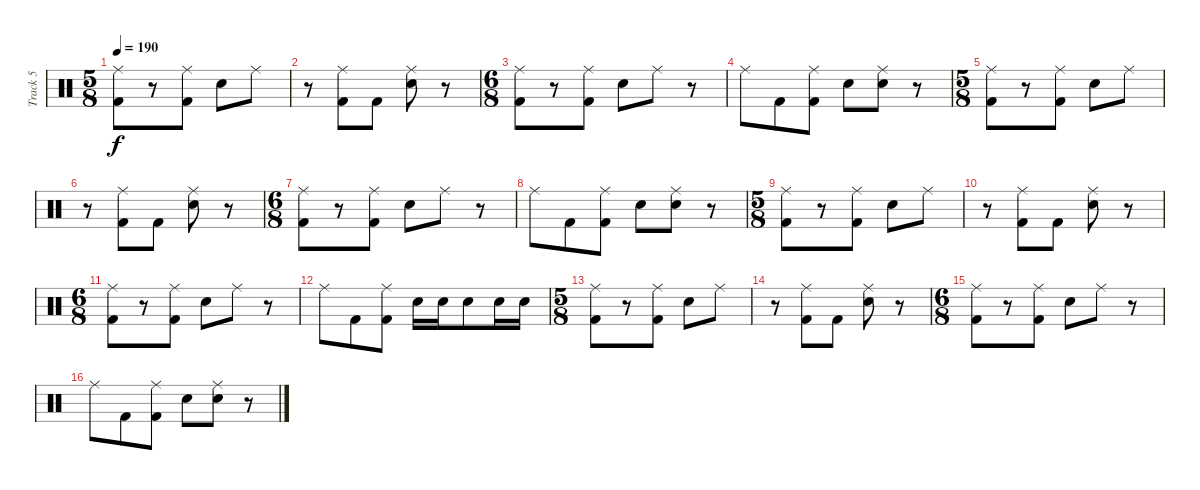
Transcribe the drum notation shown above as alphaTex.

\track ("Track 5" "Track 5") {instrument percussion}
\staff {score}
\articulation defaults
\ts (5 8)
\tempo 190
\clef neutral
\ks c
("Ride (middle)" "Kick (hit) 2").8{dy f} r.8 ("Ride (middle)" "Kick (hit) 2").8 "Electric Snare (hit)".8 "Ride (middle)".8 |
r.8 ("Ride (middle)" "Kick (hit) 2").8 "Kick (hit) 2".8 ("Ride (middle)" "Electric Snare (hit)").8 r.8 |
\ts (6 8)
("Ride (middle)" "Kick (hit) 2").8 r.8 ("Ride (middle)" "Kick (hit) 2").8 "Electric Snare (hit)".8 "Ride (middle)".8 r.8 |
"Ride (middle)".8 "Kick (hit) 2".8 ("Ride (middle)" "Kick (hit) 2").8 "Electric Snare (hit)".8 ("Ride (middle)" "Electric Snare (hit)").8 r.8 |
\ts (5 8)
("Ride (middle)" "Kick (hit) 2").8 r.8 ("Ride (middle)" "Kick (hit) 2").8 "Electric Snare (hit)".8 "Ride (middle)".8 |
r.8 ("Ride (middle)" "Kick (hit) 2").8 "Kick (hit) 2".8 ("Ride (middle)" "Electric Snare (hit)").8 r.8 |
\ts (6 8)
("Ride (middle)" "Kick (hit) 2").8 r.8 ("Ride (middle)" "Kick (hit) 2").8 "Electric Snare (hit)".8 "Ride (middle)".8 r.8 |
"Ride (middle)".8 "Kick (hit) 2".8 ("Ride (middle)" "Kick (hit) 2").8 "Electric Snare (hit)".8 ("Ride (middle)" "Electric Snare (hit)").8 r.8 |
\ts (5 8)
("Ride (middle)" "Kick (hit) 2").8 r.8 ("Ride (middle)" "Kick (hit) 2").8 "Electric Snare (hit)".8 "Ride (middle)".8 |
r.8 ("Ride (middle)" "Kick (hit) 2").8 "Kick (hit) 2".8 ("Ride (middle)" "Electric Snare (hit)").8 r.8 |
\ts (6 8)
("Ride (middle)" "Kick (hit) 2").8 r.8 ("Ride (middle)" "Kick (hit) 2").8 "Electric Snare (hit)".8 "Ride (middle)".8 r.8 |
"Ride (middle)".8 "Kick (hit) 2".8 ("Ride (middle)" "Kick (hit) 2").8 "Electric Snare (hit)".16 "Electric Snare (hit)".16 "Electric Snare (hit)".8 "Electric Snare (hit)".16 "Electric Snare (hit)".16 |
\ts (5 8)
("Ride (middle)" "Kick (hit) 2").8 r.8 ("Ride (middle)" "Kick (hit) 2").8 "Electric Snare (hit)".8 "Ride (middle)".8 |
r.8 ("Ride (middle)" "Kick (hit) 2").8 "Kick (hit) 2".8 ("Ride (middle)" "Electric Snare (hit)").8 r.8 |
\ts (6 8)
("Ride (middle)" "Kick (hit) 2").8 r.8 ("Ride (middle)" "Kick (hit) 2").8 "Electric Snare (hit)".8 "Ride (middle)".8 r.8 |
"Ride (middle)".8 "Kick (hit) 2".8 ("Ride (middle)" "Kick (hit) 2").8 "Electric Snare (hit)".8 ("Ride (middle)" "Electric Snare (hit)").8 r.8
